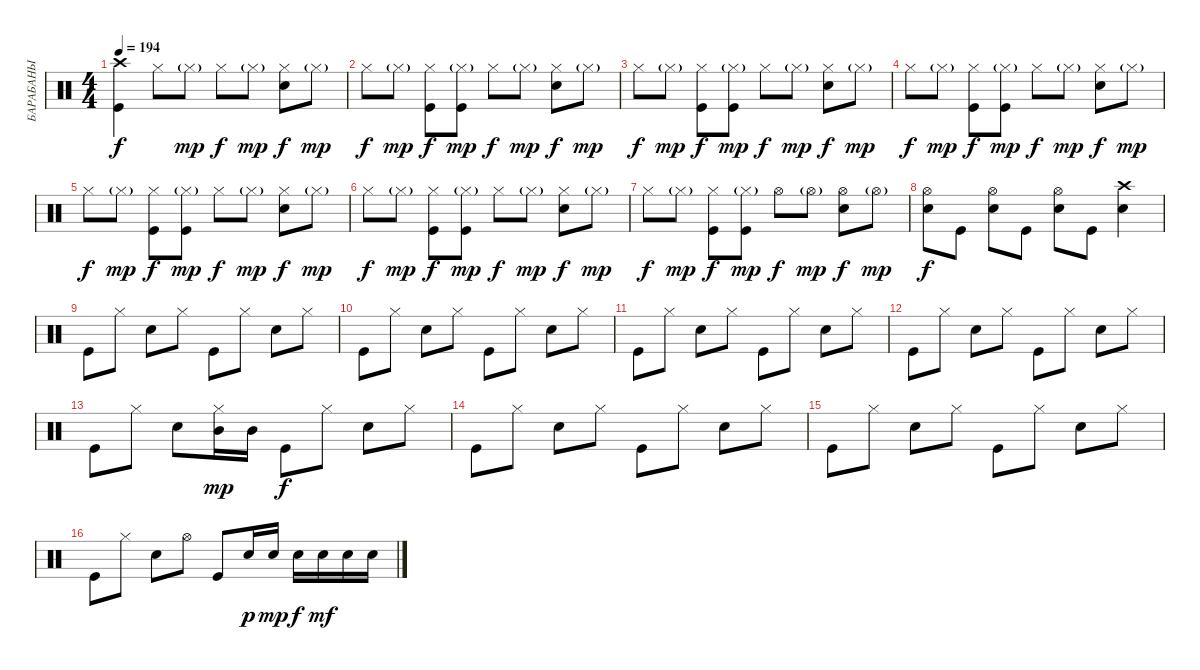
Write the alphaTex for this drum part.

\track ("БАРАБАНЫ" "БАРАБАНЫ") {instrument percussion}
\staff {score}
\articulation defaults
\ts (4 4)
\tempo 194
\clef neutral
\ks c
("Crash high (hit)" "Kick (hit)").4{dy f} "Hi-Hat (closed)".8 "Hi-Hat (closed)"{g}.8{dy mp} "Hi-Hat (closed)".8{dy f} "Hi-Hat (closed)"{g}.8{dy mp} ("Hi-Hat (closed)" "Electric Snare (hit)").8{dy f} "Hi-Hat (closed)"{g}.8{dy mp} |
"Hi-Hat (closed)".8{dy f} "Hi-Hat (closed)"{g}.8{dy mp} ("Hi-Hat (closed)" "Kick (hit)").8{dy f} ("Hi-Hat (closed)"{g} "Kick (hit)").8{dy mp} "Hi-Hat (closed)".8{dy f} "Hi-Hat (closed)"{g}.8{dy mp} ("Hi-Hat (closed)" "Electric Snare (hit)").8{dy f} "Hi-Hat (closed)"{g}.8{dy mp} |
"Hi-Hat (closed)".8{dy f} "Hi-Hat (closed)"{g}.8{dy mp} ("Hi-Hat (closed)" "Kick (hit)").8{dy f} ("Hi-Hat (closed)"{g} "Kick (hit)").8{dy mp} "Hi-Hat (closed)".8{dy f} "Hi-Hat (closed)"{g}.8{dy mp} ("Hi-Hat (closed)" "Electric Snare (hit)").8{dy f} "Hi-Hat (closed)"{g}.8{dy mp} |
"Hi-Hat (closed)".8{dy f} "Hi-Hat (closed)"{g}.8{dy mp} ("Hi-Hat (closed)" "Kick (hit)").8{dy f} ("Hi-Hat (closed)"{g} "Kick (hit)").8{dy mp} "Hi-Hat (closed)".8{dy f} "Hi-Hat (closed)"{g}.8{dy mp} ("Hi-Hat (closed)" "Electric Snare (hit)").8{dy f} "Hi-Hat (closed)"{g}.8{dy mp} |
"Hi-Hat (closed)".8{dy f} "Hi-Hat (closed)"{g}.8{dy mp} ("Hi-Hat (closed)" "Kick (hit)").8{dy f} ("Hi-Hat (closed)"{g} "Kick (hit)").8{dy mp} "Hi-Hat (closed)".8{dy f} "Hi-Hat (closed)"{g}.8{dy mp} ("Hi-Hat (closed)" "Electric Snare (hit)").8{dy f} "Hi-Hat (closed)"{g}.8{dy mp} |
"Hi-Hat (closed)".8{dy f} "Hi-Hat (closed)"{g}.8{dy mp} ("Hi-Hat (closed)" "Kick (hit)").8{dy f} ("Hi-Hat (closed)"{g} "Kick (hit)").8{dy mp} "Hi-Hat (closed)".8{dy f} "Hi-Hat (closed)"{g}.8{dy mp} ("Hi-Hat (closed)" "Electric Snare (hit)").8{dy f} "Hi-Hat (closed)"{g}.8{dy mp} |
"Hi-Hat (closed)".8{dy f} "Hi-Hat (closed)"{g}.8{dy mp} ("Hi-Hat (closed)" "Kick (hit)").8{dy f} ("Hi-Hat (closed)"{g} "Kick (hit)").8{dy mp} "Hi-Hat (open)".8{dy f} "Hi-Hat (open)"{g}.8{dy mp} ("Hi-Hat (open)" "Electric Snare (hit)").8{dy f} "Hi-Hat (open)"{g}.8{dy mp} |
("Hi-Hat (open)" "Electric Snare (hit)").8{dy f} "Kick (hit)".8 ("Hi-Hat (open)" "Electric Snare (hit)").8 "Kick (hit)".8 ("Hi-Hat (open)" "Electric Snare (hit)").8 "Kick (hit)".8 ("Crash high (hit)" "Electric Snare (hit)").4 |
"Kick (hit)".8 "Hi-Hat (closed)".8 "Electric Snare (hit)".8 "Hi-Hat (closed)".8 "Kick (hit)".8 "Hi-Hat (closed)".8 "Electric Snare (hit)".8 "Hi-Hat (closed)".8 |
"Kick (hit)".8 "Hi-Hat (closed)".8 "Electric Snare (hit)".8 "Hi-Hat (closed)".8 "Kick (hit)".8 "Hi-Hat (closed)".8 "Electric Snare (hit)".8 "Hi-Hat (closed)".8 |
"Kick (hit)".8 "Hi-Hat (closed)".8 "Electric Snare (hit)".8 "Hi-Hat (closed)".8 "Kick (hit)".8 "Hi-Hat (closed)".8 "Electric Snare (hit)".8 "Hi-Hat (closed)".8 |
"Kick (hit)".8 "Hi-Hat (closed)".8 "Electric Snare (hit)".8 "Hi-Hat (closed)".8 "Kick (hit)".8 "Hi-Hat (closed)".8 "Electric Snare (hit)".8 "Hi-Hat (closed)".8 |
"Kick (hit)".8 "Hi-Hat (closed)".8 "Electric Snare (hit)".8 ("Hi-Hat (closed)" "Mid Tom (hit)").16{dy mp} "Mid Tom (hit)".16 "Kick (hit)".8{dy f} "Hi-Hat (closed)".8 "Electric Snare (hit)".8 "Hi-Hat (closed)".8 |
"Kick (hit)".8 "Hi-Hat (closed)".8 "Electric Snare (hit)".8 "Hi-Hat (closed)".8 "Kick (hit)".8 "Hi-Hat (closed)".8 "Electric Snare (hit)".8 "Hi-Hat (closed)".8 |
"Kick (hit)".8 "Hi-Hat (closed)".8 "Electric Snare (hit)".8 "Hi-Hat (closed)".8 "Kick (hit)".8 "Hi-Hat (closed)".8 "Electric Snare (hit)".8 "Hi-Hat (closed)".8 |
"Kick (hit)".8 "Hi-Hat (closed)".8 "Electric Snare (hit)".8 "Hi-Hat (open)".8 "Kick (hit)".8 "Electric Snare (hit)".16{dy p} "Electric Snare (hit)".16{dy mp} "Electric Snare (hit)".16{dy f} "Electric Snare (hit)".16{dy mf} "Electric Snare (hit)".16 "Electric Snare (hit)".16
